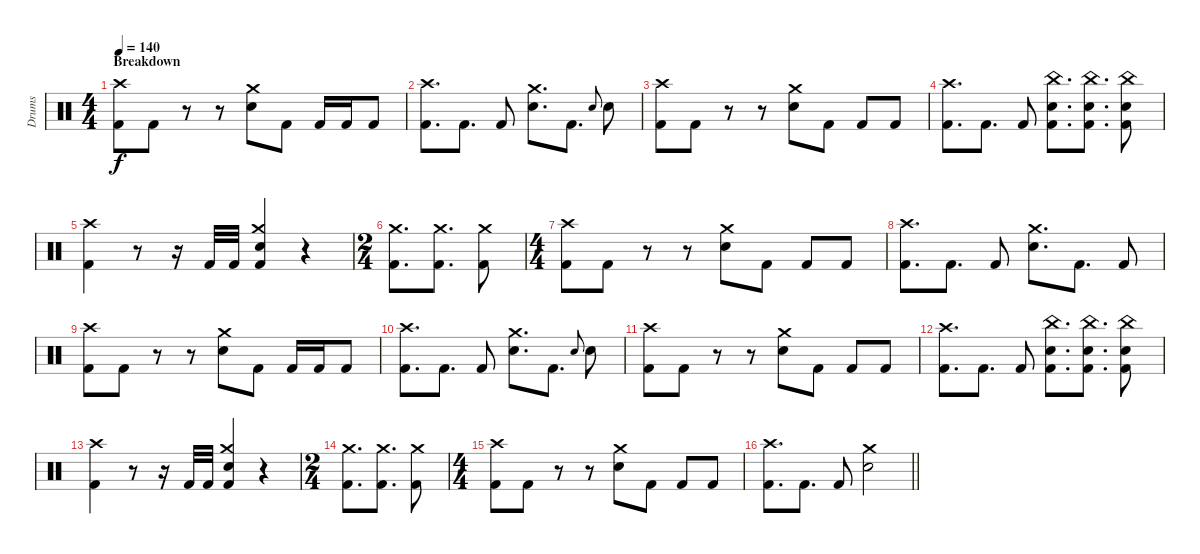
\track ("Drums" "Drums") {instrument percussion}
\staff {score}
\articulation defaults
\ts (4 4)
\section ("" "Breakdown")
\tempo 140
\clef neutral
\ks c
("Crash high (hit)" "Kick (hit) 2").8{dy f} "Kick (hit) 2".8 r.8 r.8 ("Crash medium (hit)" "Snare (hit) 2").8 "Kick (hit) 2".8 "Kick (hit) 2".16 "Kick (hit) 2".16 "Kick (hit) 2".8 |
("Crash high (hit)" "Kick (hit) 2").8{d} "Kick (hit) 2".8{d} "Kick (hit) 2".8 ("Crash medium (hit)" "Snare (hit) 2").8{d} "Kick (hit) 2".8{d} "Snare (hit) 2".8{gr onbeat} "Snare (hit) 2".8 |
("Crash high (hit)" "Kick (hit) 2").8 "Kick (hit) 2".8 r.8 r.8 ("Crash medium (hit)" "Snare (hit) 2").8 "Kick (hit) 2".8 "Kick (hit) 2".8 "Kick (hit) 2".8 |
("Crash high (hit)" "Kick (hit) 2").8{d} "Kick (hit) 2".8{d} "Kick (hit) 2".8 ("China (hit)" "Snare (hit) 2" "Kick (hit) 2").8{d} ("China (hit)" "Snare (hit) 2" "Kick (hit) 2").8{d} ("China (hit)" "Snare (hit) 2" "Kick (hit) 2").8 |
("Crash high (hit)" "Kick (hit) 2").4 r.8 r.16 "Kick (hit) 2".32 "Kick (hit) 2".32 ("Crash medium (hit)" "Snare (hit) 2" "Kick (hit) 2").4 r.4 |
\ts (2 4)
("Crash medium (hit)" "Kick (hit) 2").8{d} ("Crash medium (hit)" "Kick (hit) 2").8{d} ("Crash medium (hit)" "Kick (hit) 2").8 |
\ts (4 4)
("Crash high (hit)" "Kick (hit) 2").8 "Kick (hit) 2".8 r.8 r.8 ("Crash medium (hit)" "Snare (hit) 2").8 "Kick (hit) 2".8 "Kick (hit) 2".8 "Kick (hit) 2".8 |
("Crash high (hit)" "Kick (hit) 2").8{d} "Kick (hit) 2".8{d} "Kick (hit) 2".8 ("Crash medium (hit)" "Snare (hit) 2").8{d} "Kick (hit) 2".8{d} "Kick (hit) 2".8 |
("Crash high (hit)" "Kick (hit) 2").8 "Kick (hit) 2".8 r.8 r.8 ("Crash medium (hit)" "Snare (hit) 2").8 "Kick (hit) 2".8 "Kick (hit) 2".16 "Kick (hit) 2".16 "Kick (hit) 2".8 |
("Crash high (hit)" "Kick (hit) 2").8{d} "Kick (hit) 2".8{d} "Kick (hit) 2".8 ("Crash medium (hit)" "Snare (hit) 2").8{d} "Kick (hit) 2".8{d} "Snare (hit) 2".8{gr onbeat} "Snare (hit) 2".8 |
("Crash high (hit)" "Kick (hit) 2").8 "Kick (hit) 2".8 r.8 r.8 ("Crash medium (hit)" "Snare (hit) 2").8 "Kick (hit) 2".8 "Kick (hit) 2".8 "Kick (hit) 2".8 |
("Crash high (hit)" "Kick (hit) 2").8{d} "Kick (hit) 2".8{d} "Kick (hit) 2".8 ("China (hit)" "Snare (hit) 2" "Kick (hit) 2").8{d} ("China (hit)" "Snare (hit) 2" "Kick (hit) 2").8{d} ("China (hit)" "Snare (hit) 2" "Kick (hit) 2").8 |
("Crash high (hit)" "Kick (hit) 2").4 r.8 r.16 "Kick (hit) 2".32 "Kick (hit) 2".32 ("Crash medium (hit)" "Snare (hit) 2" "Kick (hit) 2").4 r.4 |
\ts (2 4)
("Crash medium (hit)" "Kick (hit) 2").8{d} ("Crash medium (hit)" "Kick (hit) 2").8{d} ("Crash medium (hit)" "Kick (hit) 2").8 |
\ts (4 4)
("Crash high (hit)" "Kick (hit) 2").8 "Kick (hit) 2".8 r.8 r.8 ("Crash medium (hit)" "Snare (hit) 2").8 "Kick (hit) 2".8 "Kick (hit) 2".8 "Kick (hit) 2".8 |
\barLineRight lightlight
("Crash high (hit)" "Kick (hit) 2").8{d} "Kick (hit) 2".8{d} "Kick (hit) 2".8 ("Crash medium (hit)" "Snare (hit) 2").2
